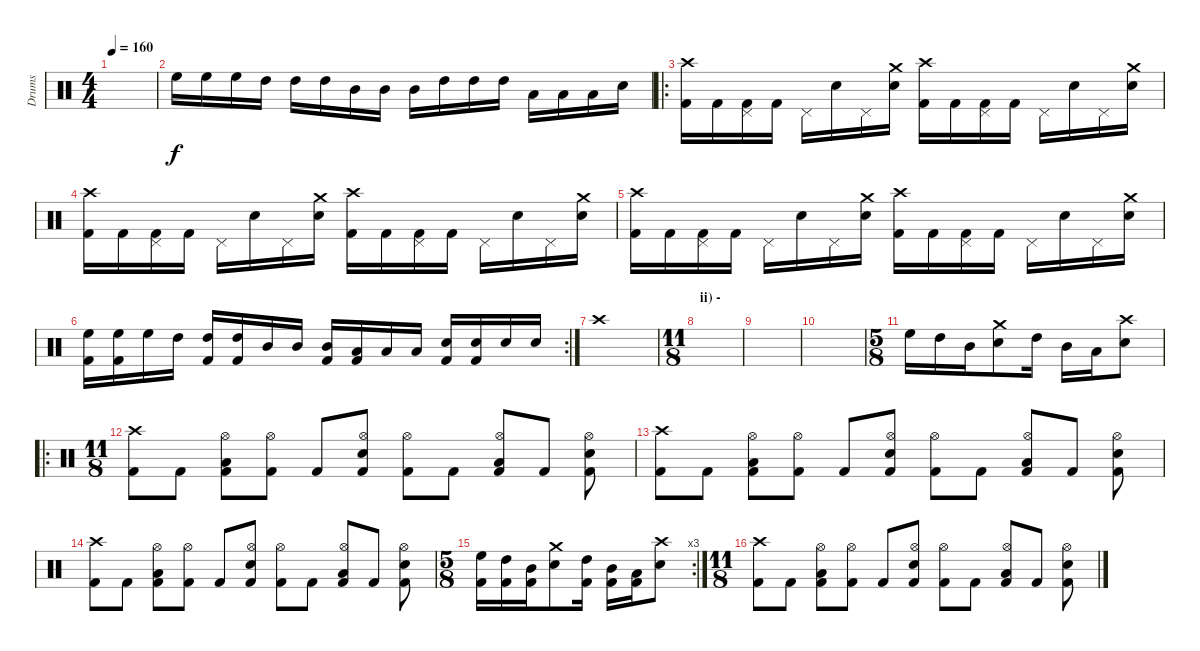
\track ("Drums" "Drums") {instrument percussion}
\staff {score}
\articulation defaults
\ts (4 4)
\tempo 160
\clef neutral
\ks c
|
"High Floor Tom (hit)".16 "High Floor Tom (hit)".16 "High Floor Tom (hit)".16 "High Tom (hit)".16 "High Tom (hit)".16 "High Tom (hit)".16 "Mid Tom (hit)".16 "Mid Tom (hit)".16 "Mid Tom (hit)".16 "High Tom (hit)".16 "High Tom (hit)".16 "High Tom (hit)".16 "Low Tom (hit)".16 "Low Tom (hit)".16 "Low Tom (hit)".16 "Snare (hit) 2".16 |
\ro
("Crash high (hit)" "Kick (hit) 2").16 "Kick (hit) 2".16 ("Pedal Hi-Hat (hit)" "Kick (hit) 2").16 "Kick (hit) 2".16 "Pedal Hi-Hat (hit)".16 "Snare (hit) 2".16 "Pedal Hi-Hat (hit)".16 ("Crash medium (hit)" "Snare (hit) 2").16 ("Crash high (hit)" "Kick (hit) 2").16 "Kick (hit) 2".16 ("Pedal Hi-Hat (hit)" "Kick (hit) 2").16 "Kick (hit) 2".16 "Pedal Hi-Hat (hit)".16 "Snare (hit) 2".16 "Pedal Hi-Hat (hit)".16 ("Crash medium (hit)" "Snare (hit) 2").16 |
("Crash high (hit)" "Kick (hit) 2").16 "Kick (hit) 2".16 ("Pedal Hi-Hat (hit)" "Kick (hit) 2").16 "Kick (hit) 2".16 "Pedal Hi-Hat (hit)".16 "Snare (hit) 2".16 "Pedal Hi-Hat (hit)".16 ("Crash medium (hit)" "Snare (hit) 2").16 ("Crash high (hit)" "Kick (hit) 2").16 "Kick (hit) 2".16 ("Pedal Hi-Hat (hit)" "Kick (hit) 2").16 "Kick (hit) 2".16 "Pedal Hi-Hat (hit)".16 "Snare (hit) 2".16 "Pedal Hi-Hat (hit)".16 ("Crash medium (hit)" "Snare (hit) 2").16 |
("Crash high (hit)" "Kick (hit) 2").16 "Kick (hit) 2".16 ("Pedal Hi-Hat (hit)" "Kick (hit) 2").16 "Kick (hit) 2".16 "Pedal Hi-Hat (hit)".16 "Snare (hit) 2".16 "Pedal Hi-Hat (hit)".16 ("Crash medium (hit)" "Snare (hit) 2").16 ("Crash high (hit)" "Kick (hit) 2").16 "Kick (hit) 2".16 ("Pedal Hi-Hat (hit)" "Kick (hit) 2").16 "Kick (hit) 2".16 "Pedal Hi-Hat (hit)".16 "Snare (hit) 2".16 "Pedal Hi-Hat (hit)".16 ("Crash medium (hit)" "Snare (hit) 2").16 |
\rc 2
("High Floor Tom (hit)" "Kick (hit) 2").16 ("High Floor Tom (hit)" "Kick (hit) 2").16 "High Floor Tom (hit)".16 "High Tom (hit)".16 ("High Tom (hit)" "Kick (hit) 2").16 ("High Tom (hit)" "Kick (hit) 2").16 "Mid Tom (hit)".16 "Mid Tom (hit)".16 ("Mid Tom (hit)" "Kick (hit) 2").16 ("Low Tom (hit)" "Kick (hit) 2").16 "Low Tom (hit)".16 "Low Tom (hit)".16 ("Snare (hit) 2" "Kick (hit) 2").16 ("Snare (hit) 2" "Kick (hit) 2").16 "Snare (hit) 2".16 "Snare (hit) 2".16 |
"Crash high (hit)".1 |
\ts (11 8)
\section ("" "ii) - ")
|
|
|
\ts (5 8)
"High Floor Tom (hit)".16 "High Tom (hit)".16 "Mid Tom (hit)".16 ("Crash medium (hit)" "Snare (hit) 2").8 "High Tom (hit)".16 "Mid Tom (hit)".16 "Low Tom (hit)".16 ("Crash high (hit)" "Snare (hit) 2").8 |
\ro
\ts (11 8)
("Crash high (hit)" "Kick (hit) 2").8 "Kick (hit) 2".8 ("Hi-Hat (open)" "Low Floor Tom (hit)" "Kick (hit) 2").8 ("Hi-Hat (open)" "Kick (hit) 2").8 "Kick (hit) 2".8 ("Hi-Hat (open)" "Electric Snare (hit)" "Kick (hit) 2").8 ("Hi-Hat (open)" "Kick (hit) 2").8 "Kick (hit) 2".8 ("Hi-Hat (open)" "Low Floor Tom (hit)" "Kick (hit) 2").8 "Kick (hit) 2".8 ("Hi-Hat (open)" "Snare (hit) 2" "Kick (hit) 2").8 |
("Crash high (hit)" "Kick (hit) 2").8 "Kick (hit) 2".8 ("Hi-Hat (open)" "Low Floor Tom (hit)" "Kick (hit) 2").8 ("Hi-Hat (open)" "Kick (hit) 2").8 "Kick (hit) 2".8 ("Hi-Hat (open)" "Electric Snare (hit)" "Kick (hit) 2").8 ("Hi-Hat (open)" "Kick (hit) 2").8 "Kick (hit) 2".8 ("Hi-Hat (open)" "Low Floor Tom (hit)" "Kick (hit) 2").8 "Kick (hit) 2".8 ("Hi-Hat (open)" "Snare (hit) 2" "Kick (hit) 2").8 |
("Crash high (hit)" "Kick (hit) 2").8 "Kick (hit) 2".8 ("Hi-Hat (open)" "Low Floor Tom (hit)" "Kick (hit) 2").8 ("Hi-Hat (open)" "Kick (hit) 2").8 "Kick (hit) 2".8 ("Hi-Hat (open)" "Electric Snare (hit)" "Kick (hit) 2").8 ("Hi-Hat (open)" "Kick (hit) 2").8 "Kick (hit) 2".8 ("Hi-Hat (open)" "Low Floor Tom (hit)" "Kick (hit) 2").8 "Kick (hit) 2".8 ("Hi-Hat (open)" "Snare (hit) 2" "Kick (hit) 2").8 |
\rc 3
\ts (5 8)
("High Floor Tom (hit)" "Kick (hit) 2").16 ("High Tom (hit)" "Kick (hit) 2").16 ("Mid Tom (hit)" "Kick (hit) 2").16 ("Crash medium (hit)" "Snare (hit) 2").8 ("High Tom (hit)" "Kick (hit) 2").16 ("Mid Tom (hit)" "Kick (hit) 2").16 ("Low Tom (hit)" "Kick (hit) 2").16 ("Crash high (hit)" "Snare (hit) 2").8 |
\ts (11 8)
("Crash high (hit)" "Kick (hit) 2").8 "Kick (hit) 2".8 ("Hi-Hat (open)" "Low Floor Tom (hit)" "Kick (hit) 2").8 ("Hi-Hat (open)" "Kick (hit) 2").8 "Kick (hit) 2".8 ("Hi-Hat (open)" "Electric Snare (hit)" "Kick (hit) 2").8 ("Hi-Hat (open)" "Kick (hit) 2").8 "Kick (hit) 2".8 ("Hi-Hat (open)" "Low Floor Tom (hit)" "Kick (hit) 2").8 "Kick (hit) 2".8 ("Hi-Hat (open)" "Snare (hit) 2" "Kick (hit) 2").8
